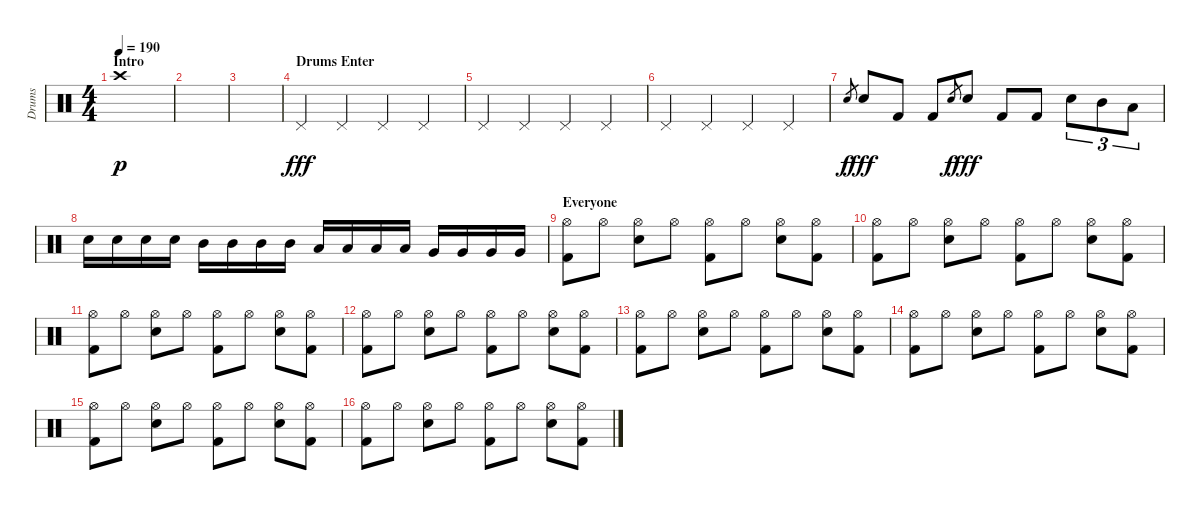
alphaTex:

\track ("Drums" "Drums") {instrument percussion}
\staff {score}
\articulation defaults
\ts (4 4)
\section ("" "Intro")
\tempo 190
\clef neutral
\ks c "Crash high (hit)".1{dy p}
|
|
|
\section ("" "Drums Enter")
"Pedal Hi-Hat (hit)".4{dy fff} "Pedal Hi-Hat (hit)".4 "Pedal Hi-Hat (hit)".4 "Pedal Hi-Hat (hit)".4 |
"Pedal Hi-Hat (hit)".4 "Pedal Hi-Hat (hit)".4 "Pedal Hi-Hat (hit)".4 "Pedal Hi-Hat (hit)".4 |
"Pedal Hi-Hat (hit)".4 "Pedal Hi-Hat (hit)".4 "Pedal Hi-Hat (hit)".4 "Pedal Hi-Hat (hit)".4 |
"Electric Snare (hit)".8{gr dy f} "Electric Snare (hit)".8{dy fff} "Kick (hit) 2".8 "Kick (hit) 2".8 "Electric Snare (hit)".8{gr dy f} "Electric Snare (hit)".8{dy fff} "Kick (hit) 2".8 "Kick (hit) 2".8 "Electric Snare (hit)".8{tu (3 2)} "Mid Tom (hit)".8{tu (3 2)} "Low Tom (hit)".8{tu (3 2)} |
"Electric Snare (hit)".16 "Electric Snare (hit)".16 "Electric Snare (hit)".16 "Electric Snare (hit)".16 "Mid Tom (hit)".16 "Mid Tom (hit)".16 "Mid Tom (hit)".16 "Mid Tom (hit)".16 "Low Tom (hit)".16 "Low Tom (hit)".16 "Low Tom (hit)".16 "Low Tom (hit)".16 "Very Low Tom (hit)".16 "Very Low Tom (hit)".16 "Very Low Tom (hit)".16 "Very Low Tom (hit)".16 |
\section ("" "Everyone")
("Hi-Hat (open)" "Kick (hit) 2").8 "Hi-Hat (open)".8 ("Hi-Hat (open)" "Electric Snare (hit)").8 "Hi-Hat (open)".8 ("Hi-Hat (open)" "Kick (hit) 2").8 "Hi-Hat (open)".8 ("Hi-Hat (open)" "Electric Snare (hit)").8 ("Hi-Hat (open)" "Kick (hit) 2").8 |
("Hi-Hat (open)" "Kick (hit) 2").8 "Hi-Hat (open)".8 ("Hi-Hat (open)" "Electric Snare (hit)").8 "Hi-Hat (open)".8 ("Hi-Hat (open)" "Kick (hit) 2").8 "Hi-Hat (open)".8 ("Hi-Hat (open)" "Electric Snare (hit)").8 ("Hi-Hat (open)" "Kick (hit) 2").8 |
("Hi-Hat (open)" "Kick (hit) 2").8 "Hi-Hat (open)".8 ("Hi-Hat (open)" "Electric Snare (hit)").8 "Hi-Hat (open)".8 ("Hi-Hat (open)" "Kick (hit) 2").8 "Hi-Hat (open)".8 ("Hi-Hat (open)" "Electric Snare (hit)").8 ("Hi-Hat (open)" "Kick (hit) 2").8 |
("Hi-Hat (open)" "Kick (hit) 2").8 "Hi-Hat (open)".8 ("Hi-Hat (open)" "Electric Snare (hit)").8 "Hi-Hat (open)".8 ("Hi-Hat (open)" "Kick (hit) 2").8 "Hi-Hat (open)".8 ("Hi-Hat (open)" "Electric Snare (hit)").8 ("Hi-Hat (open)" "Kick (hit) 2").8 |
("Hi-Hat (open)" "Kick (hit) 2").8 "Hi-Hat (open)".8 ("Hi-Hat (open)" "Electric Snare (hit)").8 "Hi-Hat (open)".8 ("Hi-Hat (open)" "Kick (hit) 2").8 "Hi-Hat (open)".8 ("Hi-Hat (open)" "Electric Snare (hit)").8 ("Hi-Hat (open)" "Kick (hit) 2").8 |
("Hi-Hat (open)" "Kick (hit) 2").8 "Hi-Hat (open)".8 ("Hi-Hat (open)" "Electric Snare (hit)").8 "Hi-Hat (open)".8 ("Hi-Hat (open)" "Kick (hit) 2").8 "Hi-Hat (open)".8 ("Hi-Hat (open)" "Electric Snare (hit)").8 ("Hi-Hat (open)" "Kick (hit) 2").8 |
("Hi-Hat (open)" "Kick (hit) 2").8 "Hi-Hat (open)".8 ("Hi-Hat (open)" "Electric Snare (hit)").8 "Hi-Hat (open)".8 ("Hi-Hat (open)" "Kick (hit) 2").8 "Hi-Hat (open)".8 ("Hi-Hat (open)" "Electric Snare (hit)").8 ("Hi-Hat (open)" "Kick (hit) 2").8 |
("Hi-Hat (open)" "Kick (hit) 2").8 "Hi-Hat (open)".8 ("Hi-Hat (open)" "Electric Snare (hit)").8 "Hi-Hat (open)".8 ("Hi-Hat (open)" "Kick (hit) 2").8 "Hi-Hat (open)".8 ("Hi-Hat (open)" "Electric Snare (hit)").8 ("Hi-Hat (open)" "Kick (hit) 2").8
